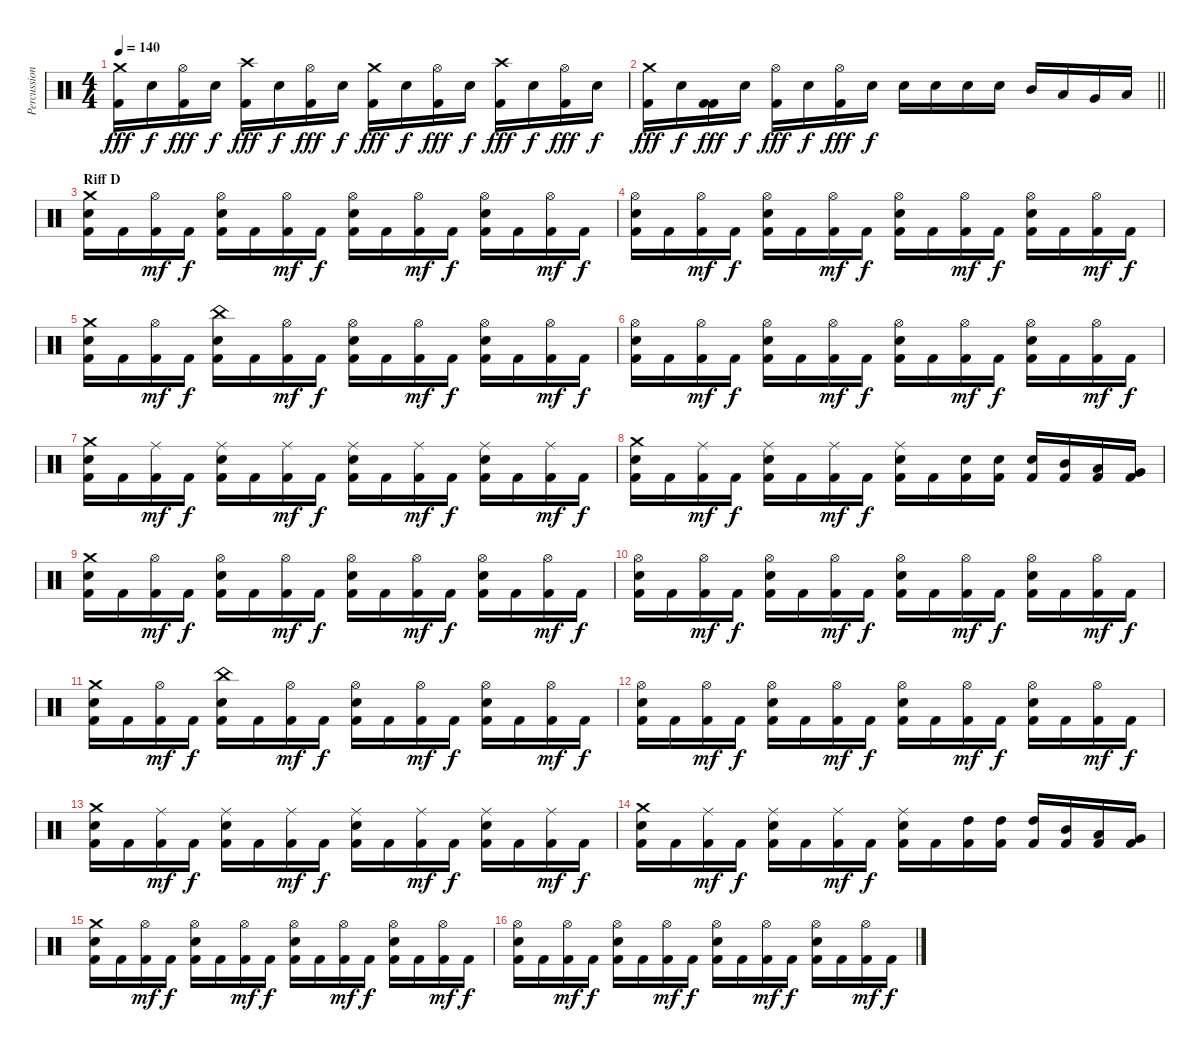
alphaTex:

\track ("Percussion" "Percussion") {instrument percussion}
\staff {score}
\articulation defaults
\ts (4 4)
\tempo 140
\clef neutral
\ks c
("Crash medium (hit)" "Kick (hit) 2").16{dy fff} "Snare (hit) 2".16{dy f} ("Hi-Hat (open)" "Kick (hit) 2").16{dy fff} "Snare (hit) 2".16{dy f} ("Crash high (hit)" "Kick (hit) 2").16{dy fff} "Snare (hit) 2".16{dy f} ("Hi-Hat (open)" "Kick (hit) 2").16{dy fff} "Snare (hit) 2".16{dy f} ("Crash medium (hit)" "Kick (hit) 2").16{dy fff} "Snare (hit) 2".16{dy f} ("Hi-Hat (open)" "Kick (hit) 2").16{dy fff} "Snare (hit) 2".16{dy f} ("Crash high (hit)" "Kick (hit) 2").16{dy fff} "Snare (hit) 2".16{dy f} ("Hi-Hat (open)" "Kick (hit) 2").16{dy fff} "Snare (hit) 2".16{dy f} |
\barLineRight lightlight
("Crash medium (hit)" "Kick (hit) 2").16{dy fff} "Snare (hit) 2".16{dy f} ("Kick (hit) 2" "Kick (hit) 2").16{dy fff} "Snare (hit) 2".16{dy f} ("Hi-Hat (open)" "Kick (hit) 2").16{dy fff} "Snare (hit) 2".16{dy f} ("Hi-Hat (open)" "Kick (hit) 2").16{dy fff} "Snare (hit) 2".16{dy f} "Snare (hit) 2".16 "Snare (hit) 2".16 "Snare (hit) 2".16 "Snare (hit) 2".16 "Mid Tom (hit)".16 "Low Tom (hit)".16 "Very Low Tom (hit)".16 "Low Floor Tom (hit)".16 |
\section ("" "Riff D")
("Crash medium (hit)" "Snare (hit) 2" "Kick (hit) 2").16 "Kick (hit) 2".16 ("Hi-Hat (open)" "Kick (hit) 2").16{dy mf} "Kick (hit) 2".16{dy f} ("Hi-Hat (open)" "Snare (hit) 2" "Kick (hit) 2").16 "Kick (hit) 2".16 ("Hi-Hat (open)" "Kick (hit) 2").16{dy mf} "Kick (hit) 2".16{dy f} ("Hi-Hat (open)" "Snare (hit) 2" "Kick (hit) 2").16 "Kick (hit) 2".16 ("Hi-Hat (open)" "Kick (hit) 2").16{dy mf} "Kick (hit) 2".16{dy f} ("Hi-Hat (open)" "Snare (hit) 2" "Kick (hit) 2").16 "Kick (hit) 2".16 ("Hi-Hat (open)" "Kick (hit) 2").16{dy mf} "Kick (hit) 2".16{dy f} |
("Hi-Hat (open)" "Snare (hit) 2" "Kick (hit) 2").16 "Kick (hit) 2".16 ("Hi-Hat (open)" "Kick (hit) 2").16{dy mf} "Kick (hit) 2".16{dy f} ("Hi-Hat (open)" "Snare (hit) 2" "Kick (hit) 2").16 "Kick (hit) 2".16 ("Hi-Hat (open)" "Kick (hit) 2").16{dy mf} "Kick (hit) 2".16{dy f} ("Hi-Hat (open)" "Snare (hit) 2" "Kick (hit) 2").16 "Kick (hit) 2".16 ("Hi-Hat (open)" "Kick (hit) 2").16{dy mf} "Kick (hit) 2".16{dy f} ("Hi-Hat (open)" "Snare (hit) 2" "Kick (hit) 2").16 "Kick (hit) 2".16 ("Hi-Hat (open)" "Kick (hit) 2").16{dy mf} "Kick (hit) 2".16{dy f} |
("Crash medium (hit)" "Snare (hit) 2" "Kick (hit) 2").16 "Kick (hit) 2".16 ("Hi-Hat (open)" "Kick (hit) 2").16{dy mf} "Kick (hit) 2".16{dy f} ("China (hit)" "Snare (hit) 2" "Kick (hit) 2").16 "Kick (hit) 2".16 ("Hi-Hat (open)" "Kick (hit) 2").16{dy mf} "Kick (hit) 2".16{dy f} ("Hi-Hat (open)" "Snare (hit) 2" "Kick (hit) 2").16 "Kick (hit) 2".16 ("Hi-Hat (open)" "Kick (hit) 2").16{dy mf} "Kick (hit) 2".16{dy f} ("Hi-Hat (open)" "Snare (hit) 2" "Kick (hit) 2").16 "Kick (hit) 2".16 ("Hi-Hat (open)" "Kick (hit) 2").16{dy mf} "Kick (hit) 2".16{dy f} |
("Hi-Hat (open)" "Snare (hit) 2" "Kick (hit) 2").16 "Kick (hit) 2".16 ("Hi-Hat (open)" "Kick (hit) 2").16{dy mf} "Kick (hit) 2".16{dy f} ("Hi-Hat (open)" "Snare (hit) 2" "Kick (hit) 2").16 "Kick (hit) 2".16 ("Hi-Hat (open)" "Kick (hit) 2").16{dy mf} "Kick (hit) 2".16{dy f} ("Hi-Hat (open)" "Snare (hit) 2" "Kick (hit) 2").16 "Kick (hit) 2".16 ("Hi-Hat (open)" "Kick (hit) 2").16{dy mf} "Kick (hit) 2".16{dy f} ("Hi-Hat (open)" "Snare (hit) 2" "Kick (hit) 2").16 "Kick (hit) 2".16 ("Hi-Hat (open)" "Kick (hit) 2").16{dy mf} "Kick (hit) 2".16{dy f} |
("Crash medium (hit)" "Snare (hit) 2" "Kick (hit) 2").16 "Kick (hit) 2".16 ("Ride (middle)" "Kick (hit) 2").16{dy mf} "Kick (hit) 2".16{dy f} ("Ride (middle)" "Snare (hit) 2" "Kick (hit) 2").16 "Kick (hit) 2".16 ("Ride (middle)" "Kick (hit) 2").16{dy mf} "Kick (hit) 2".16{dy f} ("Ride (middle)" "Snare (hit) 2" "Kick (hit) 2").16 "Kick (hit) 2".16 ("Ride (middle)" "Kick (hit) 2").16{dy mf} "Kick (hit) 2".16{dy f} ("Ride (middle)" "Snare (hit) 2" "Kick (hit) 2").16 "Kick (hit) 2".16 ("Ride (middle)" "Kick (hit) 2").16{dy mf} "Kick (hit) 2".16{dy f} |
("Crash medium (hit)" "Snare (hit) 2" "Kick (hit) 2").16 "Kick (hit) 2".16 ("Ride (middle)" "Kick (hit) 2").16{dy mf} "Kick (hit) 2".16{dy f} ("Ride (middle)" "Snare (hit) 2" "Kick (hit) 2").16 "Kick (hit) 2".16 ("Ride (middle)" "Kick (hit) 2").16{dy mf} "Kick (hit) 2".16{dy f} ("Ride (middle)" "Snare (hit) 2" "Kick (hit) 2").16 "Kick (hit) 2".16 ("Snare (hit) 2" "Kick (hit) 2").16 ("Snare (hit) 2" "Kick (hit) 2").16 ("Snare (hit) 2" "Kick (hit) 2").16 ("Mid Tom (hit)" "Kick (hit) 2").16 ("Low Tom (hit)" "Kick (hit) 2").16 ("Very Low Tom (hit)" "Kick (hit) 2").16 |
("Crash medium (hit)" "Snare (hit) 2" "Kick (hit) 2").16 "Kick (hit) 2".16 ("Hi-Hat (open)" "Kick (hit) 2").16{dy mf} "Kick (hit) 2".16{dy f} ("Hi-Hat (open)" "Snare (hit) 2" "Kick (hit) 2").16 "Kick (hit) 2".16 ("Hi-Hat (open)" "Kick (hit) 2").16{dy mf} "Kick (hit) 2".16{dy f} ("Hi-Hat (open)" "Snare (hit) 2" "Kick (hit) 2").16 "Kick (hit) 2".16 ("Hi-Hat (open)" "Kick (hit) 2").16{dy mf} "Kick (hit) 2".16{dy f} ("Hi-Hat (open)" "Snare (hit) 2" "Kick (hit) 2").16 "Kick (hit) 2".16 ("Hi-Hat (open)" "Kick (hit) 2").16{dy mf} "Kick (hit) 2".16{dy f} |
("Hi-Hat (open)" "Snare (hit) 2" "Kick (hit) 2").16 "Kick (hit) 2".16 ("Hi-Hat (open)" "Kick (hit) 2").16{dy mf} "Kick (hit) 2".16{dy f} ("Hi-Hat (open)" "Snare (hit) 2" "Kick (hit) 2").16 "Kick (hit) 2".16 ("Hi-Hat (open)" "Kick (hit) 2").16{dy mf} "Kick (hit) 2".16{dy f} ("Hi-Hat (open)" "Snare (hit) 2" "Kick (hit) 2").16 "Kick (hit) 2".16 ("Hi-Hat (open)" "Kick (hit) 2").16{dy mf} "Kick (hit) 2".16{dy f} ("Hi-Hat (open)" "Snare (hit) 2" "Kick (hit) 2").16 "Kick (hit) 2".16 ("Hi-Hat (open)" "Kick (hit) 2").16{dy mf} "Kick (hit) 2".16{dy f} |
("Crash medium (hit)" "Snare (hit) 2" "Kick (hit) 2").16 "Kick (hit) 2".16 ("Hi-Hat (open)" "Kick (hit) 2").16{dy mf} "Kick (hit) 2".16{dy f} ("China (hit)" "Snare (hit) 2" "Kick (hit) 2").16 "Kick (hit) 2".16 ("Hi-Hat (open)" "Kick (hit) 2").16{dy mf} "Kick (hit) 2".16{dy f} ("Hi-Hat (open)" "Snare (hit) 2" "Kick (hit) 2").16 "Kick (hit) 2".16 ("Hi-Hat (open)" "Kick (hit) 2").16{dy mf} "Kick (hit) 2".16{dy f} ("Hi-Hat (open)" "Snare (hit) 2" "Kick (hit) 2").16 "Kick (hit) 2".16 ("Hi-Hat (open)" "Kick (hit) 2").16{dy mf} "Kick (hit) 2".16{dy f} |
("Hi-Hat (open)" "Snare (hit) 2" "Kick (hit) 2").16 "Kick (hit) 2".16 ("Hi-Hat (open)" "Kick (hit) 2").16{dy mf} "Kick (hit) 2".16{dy f} ("Hi-Hat (open)" "Snare (hit) 2" "Kick (hit) 2").16 "Kick (hit) 2".16 ("Hi-Hat (open)" "Kick (hit) 2").16{dy mf} "Kick (hit) 2".16{dy f} ("Hi-Hat (open)" "Snare (hit) 2" "Kick (hit) 2").16 "Kick (hit) 2".16 ("Hi-Hat (open)" "Kick (hit) 2").16{dy mf} "Kick (hit) 2".16{dy f} ("Hi-Hat (open)" "Snare (hit) 2" "Kick (hit) 2").16 "Kick (hit) 2".16 ("Hi-Hat (open)" "Kick (hit) 2").16{dy mf} "Kick (hit) 2".16{dy f} |
("Crash medium (hit)" "Snare (hit) 2" "Kick (hit) 2").16 "Kick (hit) 2".16 ("Ride (middle)" "Kick (hit) 2").16{dy mf} "Kick (hit) 2".16{dy f} ("Ride (middle)" "Snare (hit) 2" "Kick (hit) 2").16 "Kick (hit) 2".16 ("Ride (middle)" "Kick (hit) 2").16{dy mf} "Kick (hit) 2".16{dy f} ("Ride (middle)" "Snare (hit) 2" "Kick (hit) 2").16 "Kick (hit) 2".16 ("Ride (middle)" "Kick (hit) 2").16{dy mf} "Kick (hit) 2".16{dy f} ("Ride (middle)" "Snare (hit) 2" "Kick (hit) 2").16 "Kick (hit) 2".16 ("Ride (middle)" "Kick (hit) 2").16{dy mf} "Kick (hit) 2".16{dy f} |
("Crash medium (hit)" "Snare (hit) 2" "Kick (hit) 2").16 "Kick (hit) 2".16 ("Ride (middle)" "Kick (hit) 2").16{dy mf} "Kick (hit) 2".16{dy f} ("Ride (middle)" "Snare (hit) 2" "Kick (hit) 2").16 "Kick (hit) 2".16 ("Ride (middle)" "Kick (hit) 2").16{dy mf} "Kick (hit) 2".16{dy f} ("Ride (middle)" "Snare (hit) 2" "Kick (hit) 2").16 "Kick (hit) 2".16 ("High Tom (hit)" "Kick (hit) 2").16 ("High Tom (hit)" "Kick (hit) 2").16 ("High Tom (hit)" "Kick (hit) 2").16 ("Mid Tom (hit)" "Kick (hit) 2").16 ("Low Tom (hit)" "Kick (hit) 2").16 ("Very Low Tom (hit)" "Kick (hit) 2").16 |
("Crash medium (hit)" "Snare (hit) 2" "Kick (hit) 2").16 "Kick (hit) 2".16 ("Hi-Hat (open)" "Kick (hit) 2").16{dy mf} "Kick (hit) 2".16{dy f} ("Hi-Hat (open)" "Snare (hit) 2" "Kick (hit) 2").16 "Kick (hit) 2".16 ("Hi-Hat (open)" "Kick (hit) 2").16{dy mf} "Kick (hit) 2".16{dy f} ("Hi-Hat (open)" "Snare (hit) 2" "Kick (hit) 2").16 "Kick (hit) 2".16 ("Hi-Hat (open)" "Kick (hit) 2").16{dy mf} "Kick (hit) 2".16{dy f} ("Hi-Hat (open)" "Snare (hit) 2" "Kick (hit) 2").16 "Kick (hit) 2".16 ("Hi-Hat (open)" "Kick (hit) 2").16{dy mf} "Kick (hit) 2".16{dy f} |
("Hi-Hat (open)" "Snare (hit) 2" "Kick (hit) 2").16 "Kick (hit) 2".16 ("Hi-Hat (open)" "Kick (hit) 2").16{dy mf} "Kick (hit) 2".16{dy f} ("Hi-Hat (open)" "Snare (hit) 2" "Kick (hit) 2").16 "Kick (hit) 2".16 ("Hi-Hat (open)" "Kick (hit) 2").16{dy mf} "Kick (hit) 2".16{dy f} ("Hi-Hat (open)" "Snare (hit) 2" "Kick (hit) 2").16 "Kick (hit) 2".16 ("Hi-Hat (open)" "Kick (hit) 2").16{dy mf} "Kick (hit) 2".16{dy f} ("Hi-Hat (open)" "Snare (hit) 2" "Kick (hit) 2").16 "Kick (hit) 2".16 ("Hi-Hat (open)" "Kick (hit) 2").16{dy mf} "Kick (hit) 2".16{dy f}
